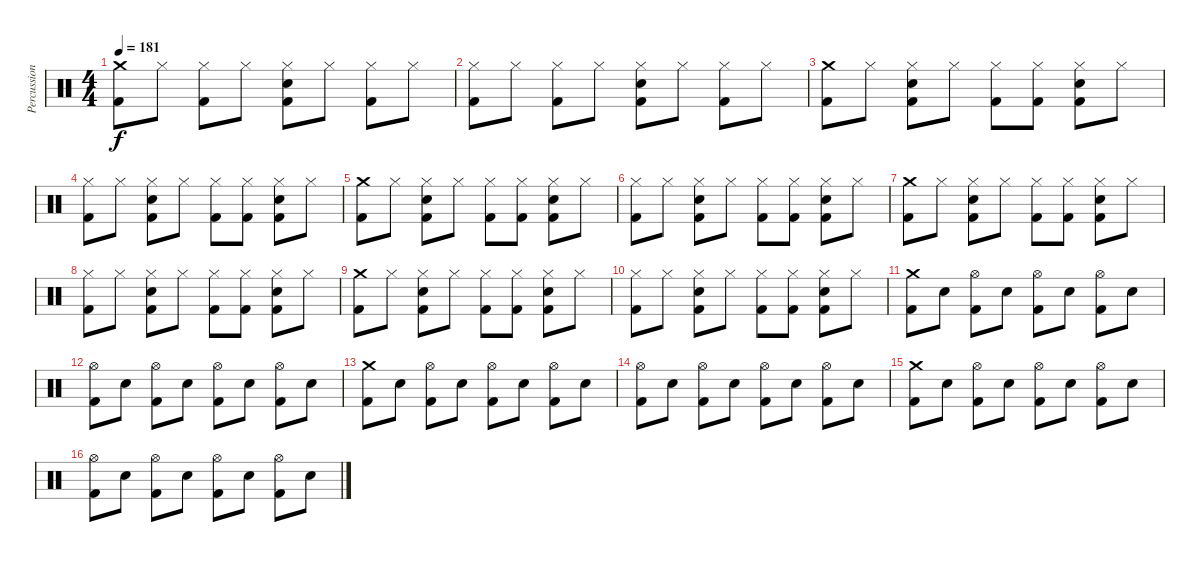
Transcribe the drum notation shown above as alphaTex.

\track ("Percussion" "Percussion") {instrument percussion}
\staff {score}
\articulation defaults
\ts (4 4)
\tempo 181
\clef neutral
\ks c
("Crash medium (hit)" "Kick (hit) 2").8{dy f} "Hi-Hat (closed)".8 ("Hi-Hat (closed)" "Kick (hit) 2").8 "Hi-Hat (closed)".8 ("Hi-Hat (closed)" "Electric Snare (hit)" "Kick (hit) 2").8 "Hi-Hat (closed)".8 ("Hi-Hat (closed)" "Kick (hit) 2").8 "Hi-Hat (closed)".8 |
("Hi-Hat (closed)" "Kick (hit) 2").8 "Hi-Hat (closed)".8 ("Hi-Hat (closed)" "Kick (hit) 2").8 "Hi-Hat (closed)".8 ("Hi-Hat (closed)" "Electric Snare (hit)" "Kick (hit) 2").8 "Hi-Hat (closed)".8 ("Hi-Hat (closed)" "Kick (hit) 2").8 "Hi-Hat (closed)".8 |
("Crash medium (hit)" "Kick (hit) 2").8 "Hi-Hat (closed)".8 ("Hi-Hat (closed)" "Electric Snare (hit)" "Kick (hit) 2").8 "Hi-Hat (closed)".8 ("Hi-Hat (closed)" "Kick (hit) 2").8 ("Hi-Hat (closed)" "Kick (hit) 2").8 ("Hi-Hat (closed)" "Electric Snare (hit)" "Kick (hit) 2").8 "Hi-Hat (closed)".8 |
("Hi-Hat (closed)" "Kick (hit) 2").8 "Hi-Hat (closed)".8 ("Hi-Hat (closed)" "Electric Snare (hit)" "Kick (hit) 2").8 "Hi-Hat (closed)".8 ("Hi-Hat (closed)" "Kick (hit) 2").8 ("Hi-Hat (closed)" "Kick (hit) 2").8 ("Hi-Hat (closed)" "Electric Snare (hit)" "Kick (hit) 2").8 "Hi-Hat (closed)".8 |
("Crash medium (hit)" "Kick (hit) 2").8 "Hi-Hat (closed)".8 ("Hi-Hat (closed)" "Electric Snare (hit)" "Kick (hit) 2").8 "Hi-Hat (closed)".8 ("Hi-Hat (closed)" "Kick (hit) 2").8 ("Hi-Hat (closed)" "Kick (hit) 2").8 ("Hi-Hat (closed)" "Electric Snare (hit)" "Kick (hit) 2").8 "Hi-Hat (closed)".8 |
("Hi-Hat (closed)" "Kick (hit) 2").8 "Hi-Hat (closed)".8 ("Hi-Hat (closed)" "Electric Snare (hit)" "Kick (hit) 2").8 "Hi-Hat (closed)".8 ("Hi-Hat (closed)" "Kick (hit) 2").8 ("Hi-Hat (closed)" "Kick (hit) 2").8 ("Hi-Hat (closed)" "Electric Snare (hit)" "Kick (hit) 2").8 "Hi-Hat (closed)".8 |
("Crash medium (hit)" "Kick (hit) 2").8 "Hi-Hat (closed)".8 ("Hi-Hat (closed)" "Electric Snare (hit)" "Kick (hit) 2").8 "Hi-Hat (closed)".8 ("Hi-Hat (closed)" "Kick (hit) 2").8 ("Hi-Hat (closed)" "Kick (hit) 2").8 ("Hi-Hat (closed)" "Electric Snare (hit)" "Kick (hit) 2").8 "Hi-Hat (closed)".8 |
("Hi-Hat (closed)" "Kick (hit) 2").8 "Hi-Hat (closed)".8 ("Hi-Hat (closed)" "Electric Snare (hit)" "Kick (hit) 2").8 "Hi-Hat (closed)".8 ("Hi-Hat (closed)" "Kick (hit) 2").8 ("Hi-Hat (closed)" "Kick (hit) 2").8 ("Hi-Hat (closed)" "Electric Snare (hit)" "Kick (hit) 2").8 "Hi-Hat (closed)".8 |
("Crash medium (hit)" "Kick (hit) 2").8 "Hi-Hat (closed)".8 ("Hi-Hat (closed)" "Electric Snare (hit)" "Kick (hit) 2").8 "Hi-Hat (closed)".8 ("Hi-Hat (closed)" "Kick (hit) 2").8 ("Hi-Hat (closed)" "Kick (hit) 2").8 ("Hi-Hat (closed)" "Electric Snare (hit)" "Kick (hit) 2").8 "Hi-Hat (closed)".8 |
("Hi-Hat (closed)" "Kick (hit) 2").8 "Hi-Hat (closed)".8 ("Hi-Hat (closed)" "Electric Snare (hit)" "Kick (hit) 2").8 "Hi-Hat (closed)".8 ("Hi-Hat (closed)" "Kick (hit) 2").8 ("Hi-Hat (closed)" "Kick (hit) 2").8 ("Hi-Hat (closed)" "Electric Snare (hit)" "Kick (hit) 2").8 "Hi-Hat (closed)".8 |
("Crash medium (hit)" "Kick (hit) 2").8 "Electric Snare (hit)".8 ("Hi-Hat (open)" "Kick (hit) 2").8 "Electric Snare (hit)".8 ("Hi-Hat (open)" "Kick (hit) 2").8 "Electric Snare (hit)".8 ("Hi-Hat (open)" "Kick (hit) 2").8 "Electric Snare (hit)".8 |
("Hi-Hat (open)" "Kick (hit) 2").8 "Electric Snare (hit)".8 ("Hi-Hat (open)" "Kick (hit) 2").8 "Electric Snare (hit)".8 ("Hi-Hat (open)" "Kick (hit) 2").8 "Electric Snare (hit)".8 ("Hi-Hat (open)" "Kick (hit) 2").8 "Electric Snare (hit)".8 |
("Crash medium (hit)" "Kick (hit) 2").8 "Electric Snare (hit)".8 ("Hi-Hat (open)" "Kick (hit) 2").8 "Electric Snare (hit)".8 ("Hi-Hat (open)" "Kick (hit) 2").8 "Electric Snare (hit)".8 ("Hi-Hat (open)" "Kick (hit) 2").8 "Electric Snare (hit)".8 |
("Hi-Hat (open)" "Kick (hit) 2").8 "Electric Snare (hit)".8 ("Hi-Hat (open)" "Kick (hit) 2").8 "Electric Snare (hit)".8 ("Hi-Hat (open)" "Kick (hit) 2").8 "Electric Snare (hit)".8 ("Hi-Hat (open)" "Kick (hit) 2").8 "Electric Snare (hit)".8 |
("Crash medium (hit)" "Kick (hit) 2").8 "Electric Snare (hit)".8 ("Hi-Hat (open)" "Kick (hit) 2").8 "Electric Snare (hit)".8 ("Hi-Hat (open)" "Kick (hit) 2").8 "Electric Snare (hit)".8 ("Hi-Hat (open)" "Kick (hit) 2").8 "Electric Snare (hit)".8 |
("Hi-Hat (open)" "Kick (hit) 2").8 "Electric Snare (hit)".8 ("Hi-Hat (open)" "Kick (hit) 2").8 "Electric Snare (hit)".8 ("Hi-Hat (open)" "Kick (hit) 2").8 "Electric Snare (hit)".8 ("Hi-Hat (open)" "Kick (hit) 2").8 "Electric Snare (hit)".8
